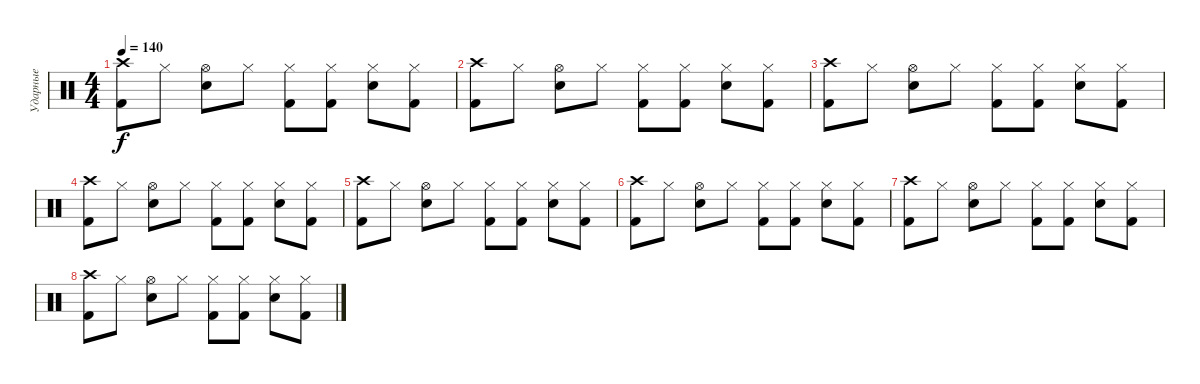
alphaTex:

\track ("Ударные" "Ударные") {instrument percussion}
\staff {score}
\articulation defaults
\ts (4 4)
\tempo 140
\clef neutral
\ks c
("Kick (hit) 2" "Crash high (hit)").8{dy f} "Hi-Hat (closed)".8 ("Electric Snare (hit)" "Hi-Hat (open)").8 "Hi-Hat (closed)".8 ("Kick (hit) 2" "Hi-Hat (closed)").8 ("Kick (hit) 2" "Hi-Hat (closed)").8 ("Electric Snare (hit)" "Hi-Hat (closed)").8 ("Kick (hit) 2" "Hi-Hat (closed)").8 |
("Kick (hit) 2" "Crash high (hit)").8 "Hi-Hat (closed)".8 ("Electric Snare (hit)" "Hi-Hat (open)").8 "Hi-Hat (closed)".8 ("Kick (hit) 2" "Hi-Hat (closed)").8 ("Kick (hit) 2" "Hi-Hat (closed)").8 ("Electric Snare (hit)" "Hi-Hat (closed)").8 ("Kick (hit) 2" "Hi-Hat (closed)").8 |
("Kick (hit) 2" "Crash high (hit)").8 "Hi-Hat (closed)".8 ("Electric Snare (hit)" "Hi-Hat (open)").8 "Hi-Hat (closed)".8 ("Kick (hit) 2" "Hi-Hat (closed)").8 ("Kick (hit) 2" "Hi-Hat (closed)").8 ("Electric Snare (hit)" "Hi-Hat (closed)").8 ("Kick (hit) 2" "Hi-Hat (closed)").8 |
("Kick (hit) 2" "Crash high (hit)").8 "Hi-Hat (closed)".8 ("Electric Snare (hit)" "Hi-Hat (open)").8 "Hi-Hat (closed)".8 ("Kick (hit) 2" "Hi-Hat (closed)").8 ("Kick (hit) 2" "Hi-Hat (closed)").8 ("Electric Snare (hit)" "Hi-Hat (closed)").8 ("Kick (hit) 2" "Hi-Hat (closed)").8 |
("Kick (hit) 2" "Crash high (hit)").8 "Hi-Hat (closed)".8 ("Electric Snare (hit)" "Hi-Hat (open)").8 "Hi-Hat (closed)".8 ("Kick (hit) 2" "Hi-Hat (closed)").8 ("Kick (hit) 2" "Hi-Hat (closed)").8 ("Electric Snare (hit)" "Hi-Hat (closed)").8 ("Kick (hit) 2" "Hi-Hat (closed)").8 |
("Kick (hit) 2" "Crash high (hit)").8 "Hi-Hat (closed)".8 ("Electric Snare (hit)" "Hi-Hat (open)").8 "Hi-Hat (closed)".8 ("Kick (hit) 2" "Hi-Hat (closed)").8 ("Kick (hit) 2" "Hi-Hat (closed)").8 ("Electric Snare (hit)" "Hi-Hat (closed)").8 ("Kick (hit) 2" "Hi-Hat (closed)").8 |
("Kick (hit) 2" "Crash high (hit)").8 "Hi-Hat (closed)".8 ("Electric Snare (hit)" "Hi-Hat (open)").8 "Hi-Hat (closed)".8 ("Kick (hit) 2" "Hi-Hat (closed)").8 ("Kick (hit) 2" "Hi-Hat (closed)").8 ("Electric Snare (hit)" "Hi-Hat (closed)").8 ("Kick (hit) 2" "Hi-Hat (closed)").8 |
("Kick (hit) 2" "Crash high (hit)").8 "Hi-Hat (closed)".8 ("Electric Snare (hit)" "Hi-Hat (open)").8 "Hi-Hat (closed)".8 ("Kick (hit) 2" "Hi-Hat (closed)").8 ("Kick (hit) 2" "Hi-Hat (closed)").8 ("Electric Snare (hit)" "Hi-Hat (closed)").8 ("Kick (hit) 2" "Hi-Hat (closed)").8
